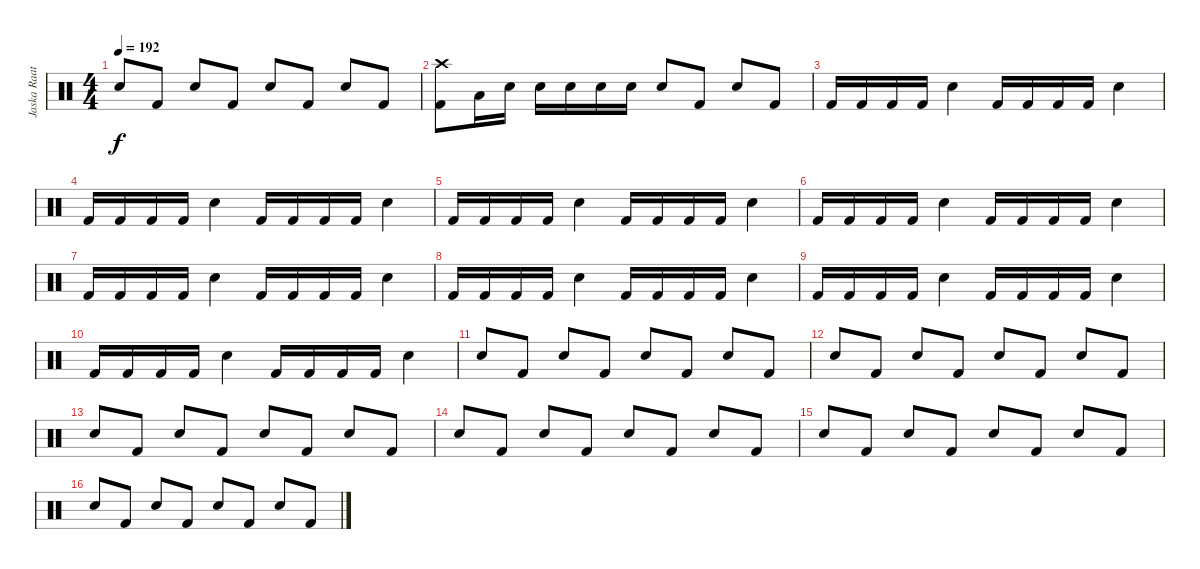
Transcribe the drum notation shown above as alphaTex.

\track ("Jaska Raatikainen" "Jaska Raat") {instrument percussion}
\staff {score}
\articulation defaults
\ts (4 4)
\tempo 192
\clef neutral
\ks c "Snare (hit) 2".8{dy f} "Kick (hit) 2".8 "Snare (hit) 2".8 "Kick (hit) 2".8 "Snare (hit) 2".8 "Kick (hit) 2".8 "Snare (hit) 2".8 "Kick (hit) 2".8
|
("Crash high (hit)" "Kick (hit) 2").8 "Low Floor Tom (hit)".16 "Snare (hit) 2".16 "Snare (hit) 2".16 "Snare (hit) 2".16 "Snare (hit) 2".16 "Snare (hit) 2".16 "Snare (hit) 2".8 "Kick (hit) 2".8 "Snare (hit) 2".8 "Kick (hit) 2".8 |
"Kick (hit) 2".16 "Kick (hit) 2".16 "Kick (hit) 2".16 "Kick (hit) 2".16 "Snare (hit) 2".4 "Kick (hit) 2".16 "Kick (hit) 2".16 "Kick (hit) 2".16 "Kick (hit) 2".16 "Snare (hit) 2".4 |
"Kick (hit) 2".16 "Kick (hit) 2".16 "Kick (hit) 2".16 "Kick (hit) 2".16 "Snare (hit) 2".4 "Kick (hit) 2".16 "Kick (hit) 2".16 "Kick (hit) 2".16 "Kick (hit) 2".16 "Snare (hit) 2".4 |
"Kick (hit) 2".16 "Kick (hit) 2".16 "Kick (hit) 2".16 "Kick (hit) 2".16 "Snare (hit) 2".4 "Kick (hit) 2".16 "Kick (hit) 2".16 "Kick (hit) 2".16 "Kick (hit) 2".16 "Snare (hit) 2".4 |
"Kick (hit) 2".16 "Kick (hit) 2".16 "Kick (hit) 2".16 "Kick (hit) 2".16 "Snare (hit) 2".4 "Kick (hit) 2".16 "Kick (hit) 2".16 "Kick (hit) 2".16 "Kick (hit) 2".16 "Snare (hit) 2".4 |
"Kick (hit) 2".16 "Kick (hit) 2".16 "Kick (hit) 2".16 "Kick (hit) 2".16 "Snare (hit) 2".4 "Kick (hit) 2".16 "Kick (hit) 2".16 "Kick (hit) 2".16 "Kick (hit) 2".16 "Snare (hit) 2".4 |
"Kick (hit) 2".16 "Kick (hit) 2".16 "Kick (hit) 2".16 "Kick (hit) 2".16 "Snare (hit) 2".4 "Kick (hit) 2".16 "Kick (hit) 2".16 "Kick (hit) 2".16 "Kick (hit) 2".16 "Snare (hit) 2".4 |
"Kick (hit) 2".16 "Kick (hit) 2".16 "Kick (hit) 2".16 "Kick (hit) 2".16 "Snare (hit) 2".4 "Kick (hit) 2".16 "Kick (hit) 2".16 "Kick (hit) 2".16 "Kick (hit) 2".16 "Snare (hit) 2".4 |
"Kick (hit) 2".16 "Kick (hit) 2".16 "Kick (hit) 2".16 "Kick (hit) 2".16 "Snare (hit) 2".4 "Kick (hit) 2".16 "Kick (hit) 2".16 "Kick (hit) 2".16 "Kick (hit) 2".16 "Snare (hit) 2".4 |
"Snare (hit) 2".8 "Kick (hit) 2".8 "Snare (hit) 2".8 "Kick (hit) 2".8 "Snare (hit) 2".8 "Kick (hit) 2".8 "Snare (hit) 2".8 "Kick (hit) 2".8 |
"Snare (hit) 2".8 "Kick (hit) 2".8 "Snare (hit) 2".8 "Kick (hit) 2".8 "Snare (hit) 2".8 "Kick (hit) 2".8 "Snare (hit) 2".8 "Kick (hit) 2".8 |
"Snare (hit) 2".8 "Kick (hit) 2".8 "Snare (hit) 2".8 "Kick (hit) 2".8 "Snare (hit) 2".8 "Kick (hit) 2".8 "Snare (hit) 2".8 "Kick (hit) 2".8 |
"Snare (hit) 2".8 "Kick (hit) 2".8 "Snare (hit) 2".8 "Kick (hit) 2".8 "Snare (hit) 2".8 "Kick (hit) 2".8 "Snare (hit) 2".8 "Kick (hit) 2".8 |
"Snare (hit) 2".8 "Kick (hit) 2".8 "Snare (hit) 2".8 "Kick (hit) 2".8 "Snare (hit) 2".8 "Kick (hit) 2".8 "Snare (hit) 2".8 "Kick (hit) 2".8 |
"Snare (hit) 2".8 "Kick (hit) 2".8 "Snare (hit) 2".8 "Kick (hit) 2".8 "Snare (hit) 2".8 "Kick (hit) 2".8 "Snare (hit) 2".8 "Kick (hit) 2".8
